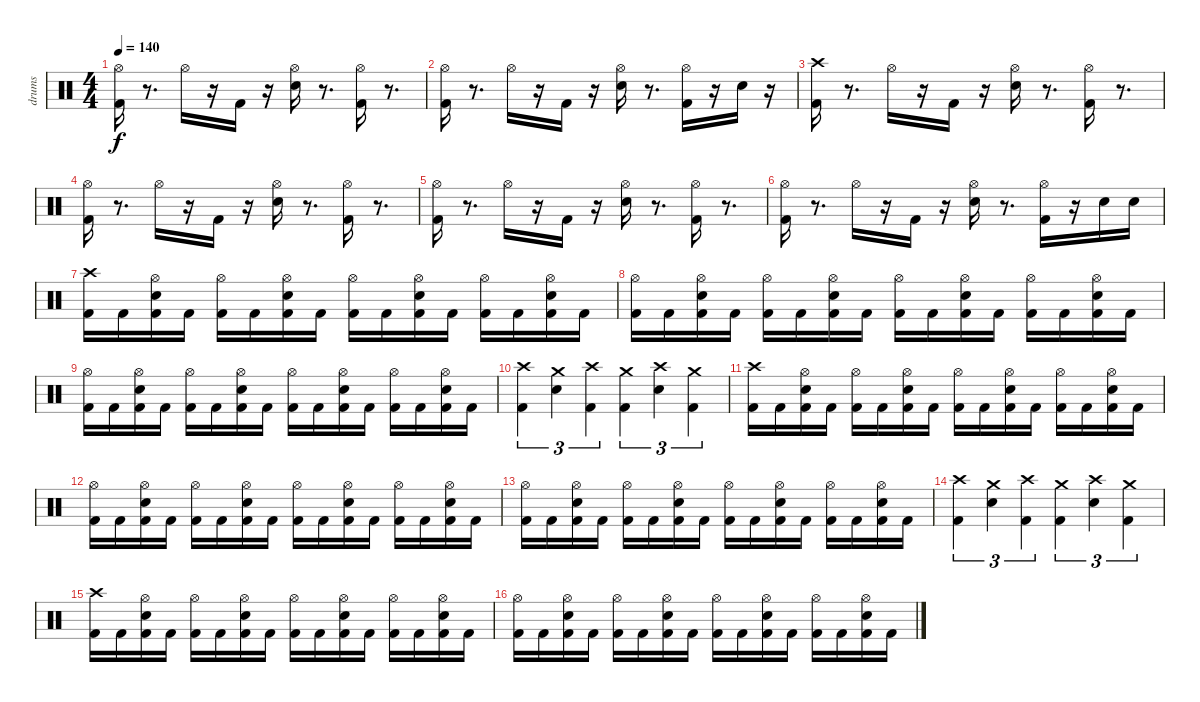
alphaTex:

\track ("drums" "drums") {instrument percussion}
\staff {score}
\articulation defaults
\ts (4 4)
\tempo 140
\clef neutral
\ks c
("Hi-Hat (open)" "Kick (hit) 2").16{dy f} r.8{d} "Hi-Hat (open)".16 r.16 "Kick (hit) 2".16 r.16 ("Hi-Hat (open)" "Snare (hit) 2").16 r.8{d} ("Hi-Hat (open)" "Kick (hit) 2").16 r.8{d} |
("Hi-Hat (open)" "Kick (hit) 2").16 r.8{d} "Hi-Hat (open)".16 r.16 "Kick (hit) 2".16 r.16 ("Hi-Hat (open)" "Snare (hit) 2").16 r.8{d} ("Hi-Hat (open)" "Kick (hit) 2").16 r.16 "Snare (hit) 2".16 r.16 |
("Crash high (hit)" "Kick (hit) 2").16 r.8{d} "Hi-Hat (open)".16 r.16 "Kick (hit) 2".16 r.16 ("Hi-Hat (open)" "Snare (hit) 2").16 r.8{d} ("Hi-Hat (open)" "Kick (hit) 2").16 r.8{d} |
("Hi-Hat (open)" "Kick (hit) 2").16 r.8{d} "Hi-Hat (open)".16 r.16 "Kick (hit) 2".16 r.16 ("Hi-Hat (open)" "Snare (hit) 2").16 r.8{d} ("Hi-Hat (open)" "Kick (hit) 2").16 r.8{d} |
("Hi-Hat (open)" "Kick (hit) 2").16 r.8{d} "Hi-Hat (open)".16 r.16 "Kick (hit) 2".16 r.16 ("Hi-Hat (open)" "Snare (hit) 2").16 r.8{d} ("Hi-Hat (open)" "Kick (hit) 2").16 r.8{d} |
("Hi-Hat (open)" "Kick (hit) 2").16 r.8{d} "Hi-Hat (open)".16 r.16 "Kick (hit) 2".16 r.16 ("Hi-Hat (open)" "Snare (hit) 2").16 r.8{d} ("Hi-Hat (open)" "Kick (hit) 2").16 r.16 "Snare (hit) 2".16 "Snare (hit) 2".16 |
("Crash high (hit)" "Kick (hit) 2").16 "Kick (hit) 2".16 ("Hi-Hat (open)" "Kick (hit) 2" "Snare (hit) 2").16 "Kick (hit) 2".16 ("Hi-Hat (open)" "Kick (hit) 2").16 "Kick (hit) 2".16 ("Hi-Hat (open)" "Kick (hit) 2" "Snare (hit) 2").16 "Kick (hit) 2".16 ("Hi-Hat (open)" "Kick (hit) 2").16 "Kick (hit) 2".16 ("Hi-Hat (open)" "Kick (hit) 2" "Snare (hit) 2").16 "Kick (hit) 2".16 ("Hi-Hat (open)" "Kick (hit) 2").16 "Kick (hit) 2".16 ("Hi-Hat (open)" "Kick (hit) 2" "Snare (hit) 2").16 "Kick (hit) 2".16 |
("Hi-Hat (open)" "Kick (hit) 2").16 "Kick (hit) 2".16 ("Hi-Hat (open)" "Kick (hit) 2" "Snare (hit) 2").16 "Kick (hit) 2".16 ("Hi-Hat (open)" "Kick (hit) 2").16 "Kick (hit) 2".16 ("Hi-Hat (open)" "Kick (hit) 2" "Snare (hit) 2").16 "Kick (hit) 2".16 ("Hi-Hat (open)" "Kick (hit) 2").16 "Kick (hit) 2".16 ("Hi-Hat (open)" "Kick (hit) 2" "Snare (hit) 2").16 "Kick (hit) 2".16 ("Hi-Hat (open)" "Kick (hit) 2").16 "Kick (hit) 2".16 ("Hi-Hat (open)" "Kick (hit) 2" "Snare (hit) 2").16 "Kick (hit) 2".16 |
("Hi-Hat (open)" "Kick (hit) 2").16 "Kick (hit) 2".16 ("Hi-Hat (open)" "Kick (hit) 2" "Snare (hit) 2").16 "Kick (hit) 2".16 ("Hi-Hat (open)" "Kick (hit) 2").16 "Kick (hit) 2".16 ("Hi-Hat (open)" "Kick (hit) 2" "Snare (hit) 2").16 "Kick (hit) 2".16 ("Hi-Hat (open)" "Kick (hit) 2").16 "Kick (hit) 2".16 ("Hi-Hat (open)" "Kick (hit) 2" "Snare (hit) 2").16 "Kick (hit) 2".16 ("Hi-Hat (open)" "Kick (hit) 2").16 "Kick (hit) 2".16 ("Hi-Hat (open)" "Kick (hit) 2" "Snare (hit) 2").16 "Kick (hit) 2".16 |
("Crash high (hit)" "Kick (hit) 2").4{tu (3 2)} ("Crash medium (hit)" "Snare (hit) 2").4{tu (3 2)} ("Crash high (hit)" "Kick (hit) 2").4{tu (3 2)} ("Crash medium (hit)" "Kick (hit) 2").4{tu (3 2)} ("Snare (hit) 2" "Crash high (hit)").4{tu (3 2)} ("Crash medium (hit)" "Kick (hit) 2").4{tu (3 2)} |
("Crash high (hit)" "Kick (hit) 2").16 "Kick (hit) 2".16 ("Hi-Hat (open)" "Kick (hit) 2" "Snare (hit) 2").16 "Kick (hit) 2".16 ("Hi-Hat (open)" "Kick (hit) 2").16 "Kick (hit) 2".16 ("Hi-Hat (open)" "Kick (hit) 2" "Snare (hit) 2").16 "Kick (hit) 2".16 ("Hi-Hat (open)" "Kick (hit) 2").16 "Kick (hit) 2".16 ("Hi-Hat (open)" "Kick (hit) 2" "Snare (hit) 2").16 "Kick (hit) 2".16 ("Hi-Hat (open)" "Kick (hit) 2").16 "Kick (hit) 2".16 ("Hi-Hat (open)" "Kick (hit) 2" "Snare (hit) 2").16 "Kick (hit) 2".16 |
("Hi-Hat (open)" "Kick (hit) 2").16 "Kick (hit) 2".16 ("Hi-Hat (open)" "Kick (hit) 2" "Snare (hit) 2").16 "Kick (hit) 2".16 ("Hi-Hat (open)" "Kick (hit) 2").16 "Kick (hit) 2".16 ("Hi-Hat (open)" "Kick (hit) 2" "Snare (hit) 2").16 "Kick (hit) 2".16 ("Hi-Hat (open)" "Kick (hit) 2").16 "Kick (hit) 2".16 ("Hi-Hat (open)" "Kick (hit) 2" "Snare (hit) 2").16 "Kick (hit) 2".16 ("Hi-Hat (open)" "Kick (hit) 2").16 "Kick (hit) 2".16 ("Hi-Hat (open)" "Kick (hit) 2" "Snare (hit) 2").16 "Kick (hit) 2".16 |
("Hi-Hat (open)" "Kick (hit) 2").16 "Kick (hit) 2".16 ("Hi-Hat (open)" "Kick (hit) 2" "Snare (hit) 2").16 "Kick (hit) 2".16 ("Hi-Hat (open)" "Kick (hit) 2").16 "Kick (hit) 2".16 ("Hi-Hat (open)" "Kick (hit) 2" "Snare (hit) 2").16 "Kick (hit) 2".16 ("Hi-Hat (open)" "Kick (hit) 2").16 "Kick (hit) 2".16 ("Hi-Hat (open)" "Kick (hit) 2" "Snare (hit) 2").16 "Kick (hit) 2".16 ("Hi-Hat (open)" "Kick (hit) 2").16 "Kick (hit) 2".16 ("Hi-Hat (open)" "Kick (hit) 2" "Snare (hit) 2").16 "Kick (hit) 2".16 |
("Crash high (hit)" "Kick (hit) 2").4{tu (3 2)} ("Crash medium (hit)" "Snare (hit) 2").4{tu (3 2)} ("Crash high (hit)" "Kick (hit) 2").4{tu (3 2)} ("Crash medium (hit)" "Kick (hit) 2").4{tu (3 2)} ("Snare (hit) 2" "Crash high (hit)").4{tu (3 2)} ("Crash medium (hit)" "Kick (hit) 2").4{tu (3 2)} |
("Crash high (hit)" "Kick (hit) 2").16 "Kick (hit) 2".16 ("Hi-Hat (open)" "Kick (hit) 2" "Snare (hit) 2").16 "Kick (hit) 2".16 ("Hi-Hat (open)" "Kick (hit) 2").16 "Kick (hit) 2".16 ("Hi-Hat (open)" "Kick (hit) 2" "Snare (hit) 2").16 "Kick (hit) 2".16 ("Hi-Hat (open)" "Kick (hit) 2").16 "Kick (hit) 2".16 ("Hi-Hat (open)" "Kick (hit) 2" "Snare (hit) 2").16 "Kick (hit) 2".16 ("Hi-Hat (open)" "Kick (hit) 2").16 "Kick (hit) 2".16 ("Hi-Hat (open)" "Kick (hit) 2" "Snare (hit) 2").16 "Kick (hit) 2".16 |
("Hi-Hat (open)" "Kick (hit) 2").16 "Kick (hit) 2".16 ("Hi-Hat (open)" "Kick (hit) 2" "Snare (hit) 2").16 "Kick (hit) 2".16 ("Hi-Hat (open)" "Kick (hit) 2").16 "Kick (hit) 2".16 ("Hi-Hat (open)" "Kick (hit) 2" "Snare (hit) 2").16 "Kick (hit) 2".16 ("Hi-Hat (open)" "Kick (hit) 2").16 "Kick (hit) 2".16 ("Hi-Hat (open)" "Kick (hit) 2" "Snare (hit) 2").16 "Kick (hit) 2".16 ("Hi-Hat (open)" "Kick (hit) 2").16 "Kick (hit) 2".16 ("Hi-Hat (open)" "Kick (hit) 2" "Snare (hit) 2").16 "Kick (hit) 2".16
